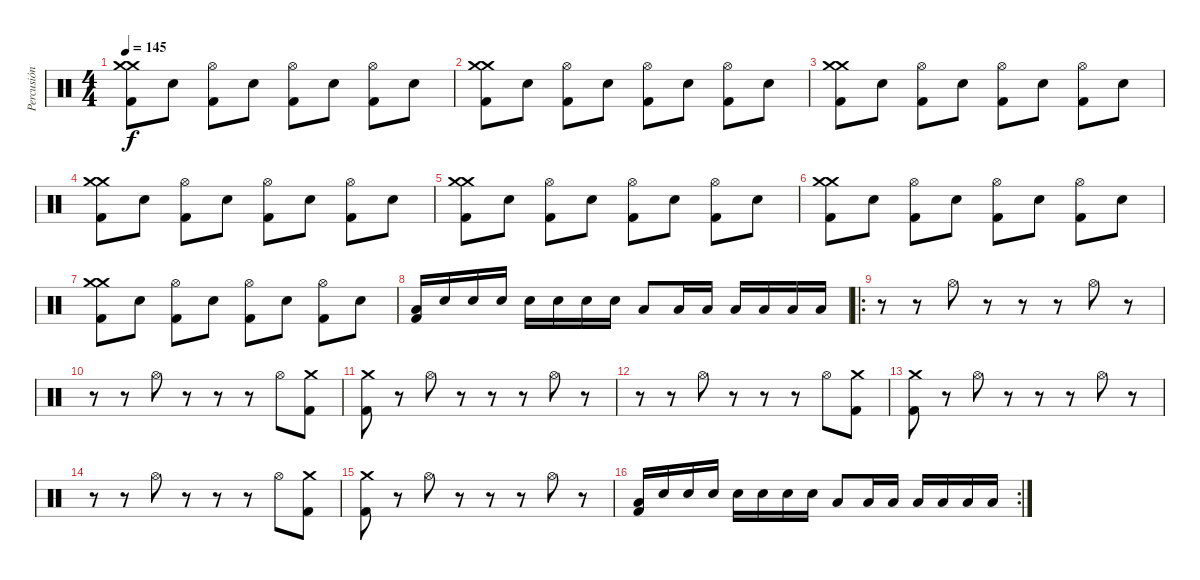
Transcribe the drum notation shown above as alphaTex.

\track ("Percusión" "Percusión") {instrument percussion}
\staff {score}
\articulation defaults
\ts (4 4)
\tempo 145
\clef neutral
\ks c
("Crash medium (hit)" "Crash medium (hit)" "Kick (hit) 2").8{dy f} "Snare (hit) 2".8 ("Hi-Hat (open)" "Kick (hit) 2").8 "Snare (hit) 2".8 ("Hi-Hat (open)" "Kick (hit) 2").8 "Snare (hit) 2".8 ("Hi-Hat (open)" "Kick (hit) 2").8 "Snare (hit) 2".8 |
("Crash medium (hit)" "Crash medium (hit)" "Kick (hit) 2").8 "Snare (hit) 2".8 ("Hi-Hat (open)" "Kick (hit) 2").8 "Snare (hit) 2".8 ("Hi-Hat (open)" "Kick (hit) 2").8 "Snare (hit) 2".8 ("Hi-Hat (open)" "Kick (hit) 2").8 "Snare (hit) 2".8 |
("Crash medium (hit)" "Crash medium (hit)" "Kick (hit) 2").8 "Snare (hit) 2".8 ("Hi-Hat (open)" "Kick (hit) 2").8 "Snare (hit) 2".8 ("Hi-Hat (open)" "Kick (hit) 2").8 "Snare (hit) 2".8 ("Hi-Hat (open)" "Kick (hit) 2").8 "Snare (hit) 2".8 |
("Crash medium (hit)" "Crash medium (hit)" "Kick (hit) 2").8 "Snare (hit) 2".8 ("Hi-Hat (open)" "Kick (hit) 2").8 "Snare (hit) 2".8 ("Hi-Hat (open)" "Kick (hit) 2").8 "Snare (hit) 2".8 ("Hi-Hat (open)" "Kick (hit) 2").8 "Snare (hit) 2".8 |
("Crash medium (hit)" "Crash medium (hit)" "Kick (hit) 2").8 "Snare (hit) 2".8 ("Hi-Hat (open)" "Kick (hit) 2").8 "Snare (hit) 2".8 ("Hi-Hat (open)" "Kick (hit) 2").8 "Snare (hit) 2".8 ("Hi-Hat (open)" "Kick (hit) 2").8 "Snare (hit) 2".8 |
("Crash medium (hit)" "Crash medium (hit)" "Kick (hit) 2").8 "Snare (hit) 2".8 ("Hi-Hat (open)" "Kick (hit) 2").8 "Snare (hit) 2".8 ("Hi-Hat (open)" "Kick (hit) 2").8 "Snare (hit) 2".8 ("Hi-Hat (open)" "Kick (hit) 2").8 "Snare (hit) 2".8 |
("Crash medium (hit)" "Crash medium (hit)" "Kick (hit) 2").8 "Snare (hit) 2".8 ("Hi-Hat (open)" "Kick (hit) 2").8 "Snare (hit) 2".8 ("Hi-Hat (open)" "Kick (hit) 2").8 "Snare (hit) 2".8 ("Hi-Hat (open)" "Kick (hit) 2").8 "Snare (hit) 2".8 |
("Low Floor Tom (hit)" "Kick (hit) 2").16 "Snare (hit) 2".16 "Snare (hit) 2".16 "Snare (hit) 2".16 "Snare (hit) 2".16 "Snare (hit) 2".16 "Snare (hit) 2".16 "Snare (hit) 2".16 "Low Tom (hit)".8 "Low Tom (hit)".16 "Low Tom (hit)".16 "Low Tom (hit)".16 "Low Tom (hit)".16 "Low Tom (hit)".16 "Low Tom (hit)".16 |
\ro
r.8 r.8 "Hi-Hat (open)".8 r.8 r.8 r.8 "Hi-Hat (open)".8 r.8 |
r.8 r.8 "Hi-Hat (open)".8 r.8 r.8 r.8 "Hi-Hat (open)".8 ("Crash medium (hit)" "Kick (hit) 2").8 |
("Crash medium (hit)" "Kick (hit) 2").8 r.8 "Hi-Hat (open)".8 r.8 r.8 r.8 "Hi-Hat (open)".8 r.8 |
r.8 r.8 "Hi-Hat (open)".8 r.8 r.8 r.8 "Hi-Hat (open)".8 ("Crash medium (hit)" "Kick (hit) 2").8 |
("Crash medium (hit)" "Kick (hit) 2").8 r.8 "Hi-Hat (open)".8 r.8 r.8 r.8 "Hi-Hat (open)".8 r.8 |
r.8 r.8 "Hi-Hat (open)".8 r.8 r.8 r.8 "Hi-Hat (open)".8 ("Crash medium (hit)" "Kick (hit) 2").8 |
("Crash medium (hit)" "Kick (hit) 2").8 r.8 "Hi-Hat (open)".8 r.8 r.8 r.8 "Hi-Hat (open)".8 r.8 |
\rc 2
("Low Floor Tom (hit)" "Kick (hit) 2").16 "Snare (hit) 2".16 "Snare (hit) 2".16 "Snare (hit) 2".16 "Snare (hit) 2".16 "Snare (hit) 2".16 "Snare (hit) 2".16 "Snare (hit) 2".16 "Low Tom (hit)".8 "Low Tom (hit)".16 "Low Tom (hit)".16 "Low Tom (hit)".16 "Low Tom (hit)".16 "Low Tom (hit)".16 "Low Tom (hit)".16
